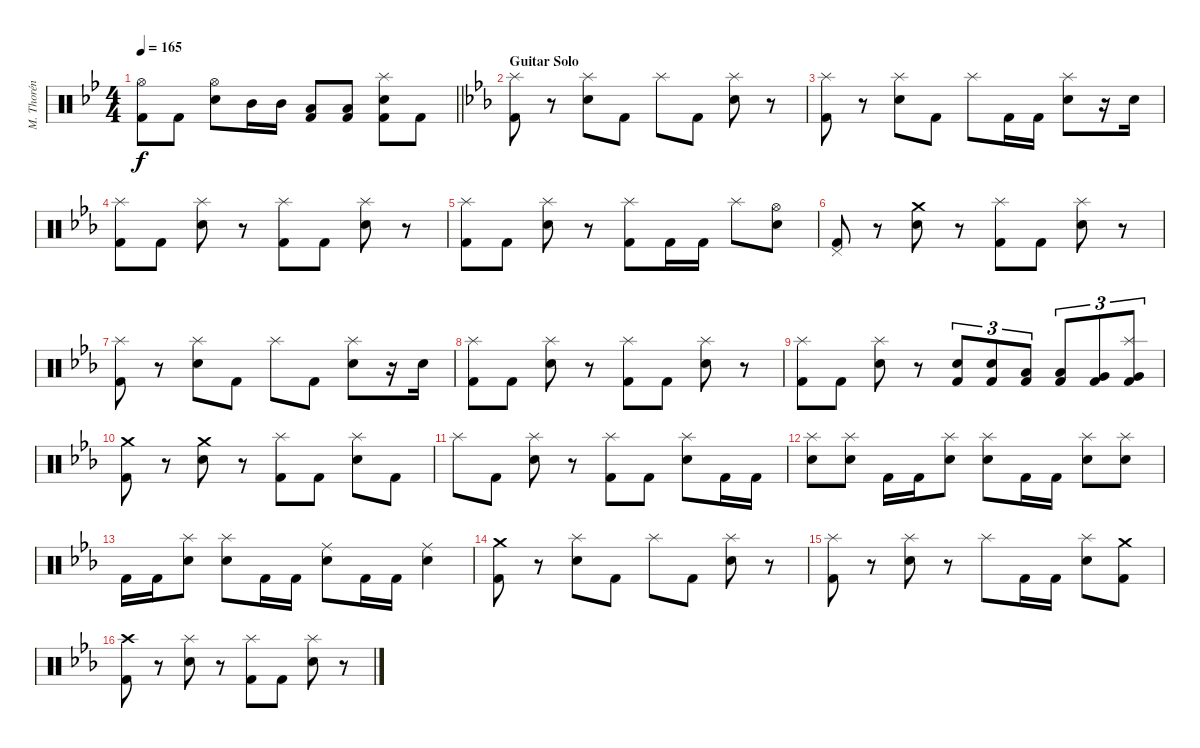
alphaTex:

\track ("M. Thorén (Drums)" "M. Thorén ") {instrument percussion}
\staff {score}
\articulation defaults
\ts (4 4)
\tempo 165
\clef neutral
\barLineRight lightlight
\ks gminor
("Hi-Hat (open)" "Kick (hit) 2").8{dy f} "Kick (hit) 2".8 ("Hi-Hat (open)" "Electric Snare (hit)").8 "Mid Tom (hit)".16 "Mid Tom (hit)".16 ("Low Tom (hit)" "Kick (hit) 2").8 ("Low Tom (hit)" "Kick (hit) 2").8 ("Splash (hit)" "Electric Snare (hit)" "Kick (hit) 2").8 "Kick (hit) 2".8 |
\section ("" "Guitar Solo")
\ks cminor
("Splash (hit)" "Kick (hit) 2").8 r.8 ("Splash (hit)" "Electric Snare (hit)").8 "Kick (hit) 2".8 "Splash (hit)".8 "Kick (hit) 2".8 ("Splash (hit)" "Electric Snare (hit)").8 r.8 |
("Splash (hit)" "Kick (hit) 2").8 r.8 ("Splash (hit)" "Electric Snare (hit)").8 "Kick (hit) 2".8 "Splash (hit)".8 "Kick (hit) 2".16 "Kick (hit) 2".16 ("Splash (hit)" "Electric Snare (hit)").8 r.16 "Electric Snare (hit)".16 |
("Splash (hit)" "Kick (hit) 2").8 "Kick (hit) 2".8 ("Splash (hit)" "Electric Snare (hit)").8 r.8 ("Splash (hit)" "Kick (hit) 2").8 "Kick (hit) 2".8 ("Splash (hit)" "Electric Snare (hit)").8 r.8 |
("Splash (hit)" "Kick (hit) 2").8 "Kick (hit) 2".8 ("Splash (hit)" "Electric Snare (hit)").8 r.8 ("Splash (hit)" "Kick (hit) 2").8 "Kick (hit) 2".16 "Kick (hit) 2".16 "Splash (hit)".8 ("Hi-Hat (open)" "Electric Snare (hit)").8 |
("Pedal Hi-Hat (hit)" "Kick (hit) 2").8 r.8 ("Crash medium (hit)" "Electric Snare (hit)").8 r.8 ("Splash (hit)" "Kick (hit) 2").8 "Kick (hit) 2".8 ("Splash (hit)" "Electric Snare (hit)").8 r.8 |
("Splash (hit)" "Kick (hit) 2").8 r.8 ("Splash (hit)" "Electric Snare (hit)").8 "Kick (hit) 2".8 "Splash (hit)".8 "Kick (hit) 2".8 ("Splash (hit)" "Electric Snare (hit)").8 r.16 "Electric Snare (hit)".16 |
("Splash (hit)" "Kick (hit) 2").8 "Kick (hit) 2".8 ("Splash (hit)" "Electric Snare (hit)").8 r.8 ("Splash (hit)" "Kick (hit) 2").8 "Kick (hit) 2".8 ("Splash (hit)" "Electric Snare (hit)").8 r.8 |
("Splash (hit)" "Kick (hit) 2").8 "Kick (hit) 2".8 ("Splash (hit)" "Electric Snare (hit)").8 r.8 ("Electric Snare (hit)" "Kick (hit) 2").8{tu (3 2)} ("Electric Snare (hit)" "Kick (hit) 2").8{tu (3 2)} ("Low Tom (hit)" "Kick (hit) 2").8{tu (3 2)} ("Low Tom (hit)" "Kick (hit) 2").8{tu (3 2)} ("Very Low Tom (hit)" "Kick (hit) 2").8{tu (3 2)} ("Splash (hit)" "Very Low Tom (hit)" "Kick (hit) 2").8{tu (3 2)} |
("Crash medium (hit)" "Kick (hit) 2").8 r.8 ("Crash medium (hit)" "Electric Snare (hit)").8 r.8 ("Splash (hit)" "Kick (hit) 2").8 "Kick (hit) 2".8 ("Splash (hit)" "Electric Snare (hit)").8 "Kick (hit) 2".8 |
"Splash (hit)".8 "Kick (hit) 2".8 ("Splash (hit)" "Electric Snare (hit)").8 r.8 ("Splash (hit)" "Kick (hit) 2").8 "Kick (hit) 2".8 ("Splash (hit)" "Electric Snare (hit)").8 "Kick (hit) 2".16 "Kick (hit) 2".16 |
("Splash (hit)" "Electric Snare (hit)").8 ("Splash (hit)" "Electric Snare (hit)").8 "Kick (hit) 2".16 "Kick (hit) 2".16 ("Splash (hit)" "Electric Snare (hit)").8 ("Splash (hit)" "Electric Snare (hit)").8 "Kick (hit) 2".16 "Kick (hit) 2".16 ("Splash (hit)" "Electric Snare (hit)").8 ("Splash (hit)" "Electric Snare (hit)").8 |
"Kick (hit) 2".16 "Kick (hit) 2".16 ("Splash (hit)" "Electric Snare (hit)").8 ("Splash (hit)" "Electric Snare (hit)").8 "Kick (hit) 2".16 "Kick (hit) 2".16 ("Ride (middle)" "Electric Snare (hit)").8 "Kick (hit) 2".16 "Kick (hit) 2".16 ("Ride (middle)" "Electric Snare (hit)").4 |
("Crash medium (hit)" "Kick (hit) 2").8 r.8 ("Splash (hit)" "Electric Snare (hit)").8 "Kick (hit) 2".8 "Splash (hit)".8 "Kick (hit) 2".8 ("Splash (hit)" "Electric Snare (hit)").8 r.8 |
("Splash (hit)" "Kick (hit) 2").8 r.8 ("Splash (hit)" "Electric Snare (hit)").8 r.8 "Splash (hit)".8 "Kick (hit) 2".16 "Kick (hit) 2".16 ("Splash (hit)" "Electric Snare (hit)").8 ("Crash medium (hit)" "Kick (hit) 2").8 |
("Crash high (hit)" "Kick (hit) 2").8 r.8 ("Splash (hit)" "Electric Snare (hit)").8 r.8 ("Splash (hit)" "Kick (hit) 2").8 "Kick (hit) 2".8 ("Splash (hit)" "Electric Snare (hit)").8 r.8
